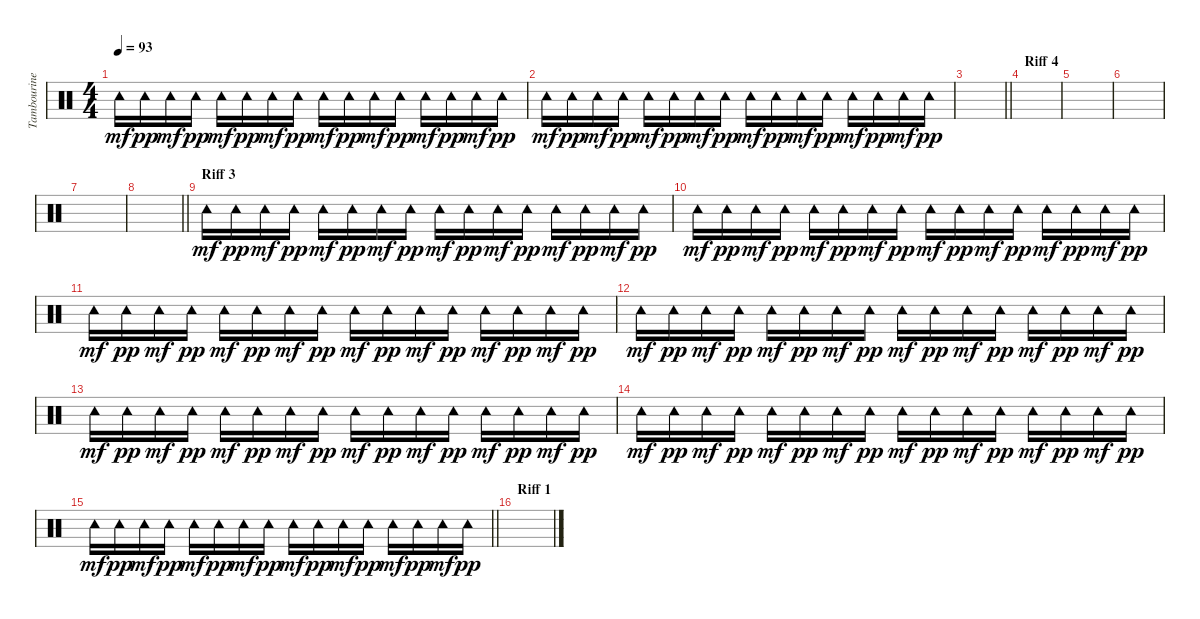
\track ("Tambourine" "Tambourine") {instrument percussion}
\staff {score}
\articulation defaults
\ts (4 4)
\tempo 93
\clef neutral
\ks c "Tambourine (hit)".16{dy mf} "Tambourine (hit)".16{dy pp} "Tambourine (hit)".16{dy mf} "Tambourine (hit)".16{dy pp} "Tambourine (hit)".16{dy mf} "Tambourine (hit)".16{dy pp} "Tambourine (hit)".16{dy mf} "Tambourine (hit)".16{dy pp} "Tambourine (hit)".16{dy mf} "Tambourine (hit)".16{dy pp} "Tambourine (hit)".16{dy mf} "Tambourine (hit)".16{dy pp} "Tambourine (hit)".16{dy mf} "Tambourine (hit)".16{dy pp} "Tambourine (hit)".16{dy mf} "Tambourine (hit)".16{dy pp}
|
"Tambourine (hit)".16{dy mf} "Tambourine (hit)".16{dy pp} "Tambourine (hit)".16{dy mf} "Tambourine (hit)".16{dy pp} "Tambourine (hit)".16{dy mf} "Tambourine (hit)".16{dy pp} "Tambourine (hit)".16{dy mf} "Tambourine (hit)".16{dy pp} "Tambourine (hit)".16{dy mf} "Tambourine (hit)".16{dy pp} "Tambourine (hit)".16{dy mf} "Tambourine (hit)".16{dy pp} "Tambourine (hit)".16{dy mf} "Tambourine (hit)".16{dy pp} "Tambourine (hit)".16{dy mf} "Tambourine (hit)".16{dy pp} |
\barLineRight lightlight
|
\section ("" "Riff 4")
|
|
|
|
\barLineRight lightlight
|
\section ("" "Riff 3")
"Tambourine (hit)".16{dy mf} "Tambourine (hit)".16{dy pp} "Tambourine (hit)".16{dy mf} "Tambourine (hit)".16{dy pp} "Tambourine (hit)".16{dy mf} "Tambourine (hit)".16{dy pp} "Tambourine (hit)".16{dy mf} "Tambourine (hit)".16{dy pp} "Tambourine (hit)".16{dy mf} "Tambourine (hit)".16{dy pp} "Tambourine (hit)".16{dy mf} "Tambourine (hit)".16{dy pp} "Tambourine (hit)".16{dy mf} "Tambourine (hit)".16{dy pp} "Tambourine (hit)".16{dy mf} "Tambourine (hit)".16{dy pp} |
"Tambourine (hit)".16{dy mf} "Tambourine (hit)".16{dy pp} "Tambourine (hit)".16{dy mf} "Tambourine (hit)".16{dy pp} "Tambourine (hit)".16{dy mf} "Tambourine (hit)".16{dy pp} "Tambourine (hit)".16{dy mf} "Tambourine (hit)".16{dy pp} "Tambourine (hit)".16{dy mf} "Tambourine (hit)".16{dy pp} "Tambourine (hit)".16{dy mf} "Tambourine (hit)".16{dy pp} "Tambourine (hit)".16{dy mf} "Tambourine (hit)".16{dy pp} "Tambourine (hit)".16{dy mf} "Tambourine (hit)".16{dy pp} |
"Tambourine (hit)".16{dy mf} "Tambourine (hit)".16{dy pp} "Tambourine (hit)".16{dy mf} "Tambourine (hit)".16{dy pp} "Tambourine (hit)".16{dy mf} "Tambourine (hit)".16{dy pp} "Tambourine (hit)".16{dy mf} "Tambourine (hit)".16{dy pp} "Tambourine (hit)".16{dy mf} "Tambourine (hit)".16{dy pp} "Tambourine (hit)".16{dy mf} "Tambourine (hit)".16{dy pp} "Tambourine (hit)".16{dy mf} "Tambourine (hit)".16{dy pp} "Tambourine (hit)".16{dy mf} "Tambourine (hit)".16{dy pp} |
"Tambourine (hit)".16{dy mf} "Tambourine (hit)".16{dy pp} "Tambourine (hit)".16{dy mf} "Tambourine (hit)".16{dy pp} "Tambourine (hit)".16{dy mf} "Tambourine (hit)".16{dy pp} "Tambourine (hit)".16{dy mf} "Tambourine (hit)".16{dy pp} "Tambourine (hit)".16{dy mf} "Tambourine (hit)".16{dy pp} "Tambourine (hit)".16{dy mf} "Tambourine (hit)".16{dy pp} "Tambourine (hit)".16{dy mf} "Tambourine (hit)".16{dy pp} "Tambourine (hit)".16{dy mf} "Tambourine (hit)".16{dy pp} |
"Tambourine (hit)".16{dy mf} "Tambourine (hit)".16{dy pp} "Tambourine (hit)".16{dy mf} "Tambourine (hit)".16{dy pp} "Tambourine (hit)".16{dy mf} "Tambourine (hit)".16{dy pp} "Tambourine (hit)".16{dy mf} "Tambourine (hit)".16{dy pp} "Tambourine (hit)".16{dy mf} "Tambourine (hit)".16{dy pp} "Tambourine (hit)".16{dy mf} "Tambourine (hit)".16{dy pp} "Tambourine (hit)".16{dy mf} "Tambourine (hit)".16{dy pp} "Tambourine (hit)".16{dy mf} "Tambourine (hit)".16{dy pp} |
"Tambourine (hit)".16{dy mf} "Tambourine (hit)".16{dy pp} "Tambourine (hit)".16{dy mf} "Tambourine (hit)".16{dy pp} "Tambourine (hit)".16{dy mf} "Tambourine (hit)".16{dy pp} "Tambourine (hit)".16{dy mf} "Tambourine (hit)".16{dy pp} "Tambourine (hit)".16{dy mf} "Tambourine (hit)".16{dy pp} "Tambourine (hit)".16{dy mf} "Tambourine (hit)".16{dy pp} "Tambourine (hit)".16{dy mf} "Tambourine (hit)".16{dy pp} "Tambourine (hit)".16{dy mf} "Tambourine (hit)".16{dy pp} |
\barLineRight lightlight "Tambourine (hit)".16{dy mf} "Tambourine (hit)".16{dy pp} "Tambourine (hit)".16{dy mf} "Tambourine (hit)".16{dy pp} "Tambourine (hit)".16{dy mf} "Tambourine (hit)".16{dy pp} "Tambourine (hit)".16{dy mf} "Tambourine (hit)".16{dy pp} "Tambourine (hit)".16{dy mf} "Tambourine (hit)".16{dy pp} "Tambourine (hit)".16{dy mf} "Tambourine (hit)".16{dy pp} "Tambourine (hit)".16{dy mf} "Tambourine (hit)".16{dy pp} "Tambourine (hit)".16{dy mf} "Tambourine (hit)".16{dy pp}
|
\section ("" "Riff 1")
